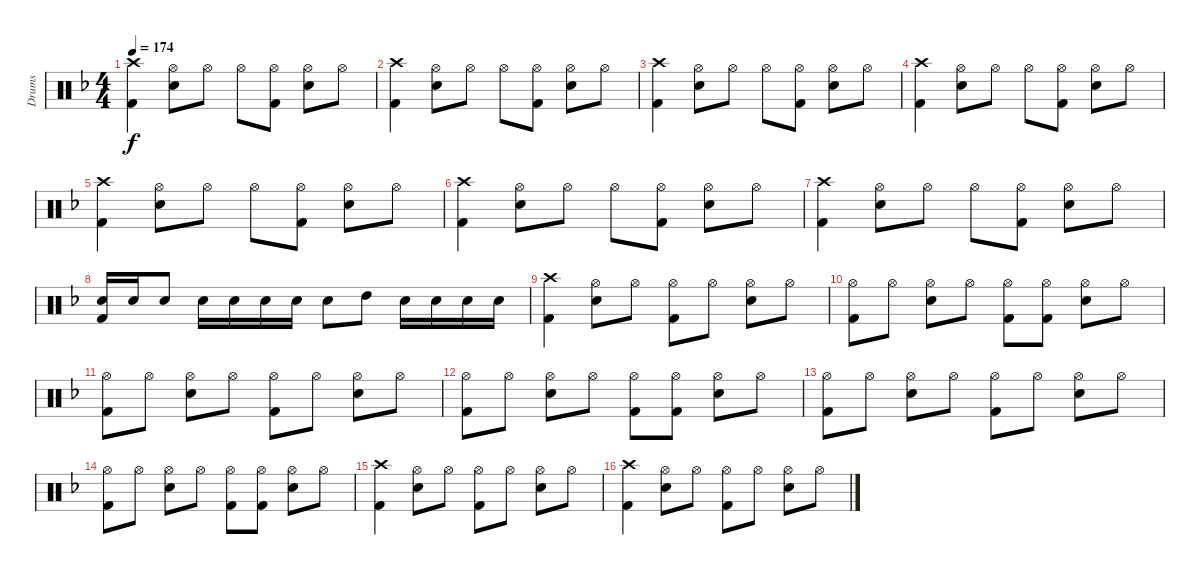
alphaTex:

\track ("Drums" "Drums") {instrument percussion}
\staff {score}
\articulation defaults
\ts (4 4)
\tempo 174
\clef neutral
\ks dminor
("Kick (hit) 2" "Crash high (hit)").4{dy f} ("Snare (hit) 2" "Hi-Hat (open)").8 "Hi-Hat (open)".8 "Hi-Hat (open)".8 ("Kick (hit) 2" "Hi-Hat (open)").8 ("Snare (hit) 2" "Hi-Hat (open)").8 "Hi-Hat (open)".8 |
("Kick (hit) 2" "Crash high (hit)").4 ("Snare (hit) 2" "Hi-Hat (open)").8 "Hi-Hat (open)".8 "Hi-Hat (open)".8 ("Kick (hit) 2" "Hi-Hat (open)").8 ("Snare (hit) 2" "Hi-Hat (open)").8 "Hi-Hat (open)".8 |
("Kick (hit) 2" "Crash high (hit)").4 ("Snare (hit) 2" "Hi-Hat (open)").8 "Hi-Hat (open)".8 "Hi-Hat (open)".8 ("Kick (hit) 2" "Hi-Hat (open)").8 ("Snare (hit) 2" "Hi-Hat (open)").8 "Hi-Hat (open)".8 |
("Kick (hit) 2" "Crash high (hit)").4 ("Snare (hit) 2" "Hi-Hat (open)").8 "Hi-Hat (open)".8 "Hi-Hat (open)".8 ("Kick (hit) 2" "Hi-Hat (open)").8 ("Snare (hit) 2" "Hi-Hat (open)").8 "Hi-Hat (open)".8 |
("Kick (hit) 2" "Crash high (hit)").4 ("Snare (hit) 2" "Hi-Hat (open)").8 "Hi-Hat (open)".8 "Hi-Hat (open)".8 ("Kick (hit) 2" "Hi-Hat (open)").8 ("Snare (hit) 2" "Hi-Hat (open)").8 "Hi-Hat (open)".8 |
("Kick (hit) 2" "Crash high (hit)").4 ("Snare (hit) 2" "Hi-Hat (open)").8 "Hi-Hat (open)".8 "Hi-Hat (open)".8 ("Kick (hit) 2" "Hi-Hat (open)").8 ("Snare (hit) 2" "Hi-Hat (open)").8 "Hi-Hat (open)".8 |
("Kick (hit) 2" "Crash high (hit)").4 ("Snare (hit) 2" "Hi-Hat (open)").8 "Hi-Hat (open)".8 "Hi-Hat (open)".8 ("Kick (hit) 2" "Hi-Hat (open)").8 ("Snare (hit) 2" "Hi-Hat (open)").8 "Hi-Hat (open)".8 |
("Kick (hit) 2" "Snare (hit) 2").16 "Snare (hit) 2".16 "Snare (hit) 2".8 "Snare (hit) 2".16 "Snare (hit) 2".16 "Snare (hit) 2".16 "Snare (hit) 2".16 "Snare (hit) 2".8 "High Tom (hit)".8 "Snare (hit) 2".16 "Snare (hit) 2".16 "Snare (hit) 2".16 "Snare (hit) 2".16 |
("Kick (hit) 2" "Crash high (hit)").4 ("Snare (hit) 2" "Hi-Hat (open)").8 "Hi-Hat (open)".8 ("Kick (hit) 2" "Hi-Hat (open)").8 "Hi-Hat (open)".8 ("Snare (hit) 2" "Hi-Hat (open)").8 "Hi-Hat (open)".8 |
("Kick (hit) 2" "Hi-Hat (open)").8 "Hi-Hat (open)".8 ("Snare (hit) 2" "Hi-Hat (open)").8 "Hi-Hat (open)".8 ("Kick (hit) 2" "Hi-Hat (open)").8 ("Kick (hit) 2" "Hi-Hat (open)").8 ("Snare (hit) 2" "Hi-Hat (open)").8 "Hi-Hat (open)".8 |
("Kick (hit) 2" "Hi-Hat (open)").8 "Hi-Hat (open)".8 ("Snare (hit) 2" "Hi-Hat (open)").8 "Hi-Hat (open)".8 ("Kick (hit) 2" "Hi-Hat (open)").8 "Hi-Hat (open)".8 ("Snare (hit) 2" "Hi-Hat (open)").8 "Hi-Hat (open)".8 |
("Kick (hit) 2" "Hi-Hat (open)").8 "Hi-Hat (open)".8 ("Snare (hit) 2" "Hi-Hat (open)").8 "Hi-Hat (open)".8 ("Kick (hit) 2" "Hi-Hat (open)").8 ("Kick (hit) 2" "Hi-Hat (open)").8 ("Snare (hit) 2" "Hi-Hat (open)").8 "Hi-Hat (open)".8 |
("Kick (hit) 2" "Hi-Hat (open)").8 "Hi-Hat (open)".8 ("Snare (hit) 2" "Hi-Hat (open)").8 "Hi-Hat (open)".8 ("Kick (hit) 2" "Hi-Hat (open)").8 "Hi-Hat (open)".8 ("Snare (hit) 2" "Hi-Hat (open)").8 "Hi-Hat (open)".8 |
("Kick (hit) 2" "Hi-Hat (open)").8 "Hi-Hat (open)".8 ("Snare (hit) 2" "Hi-Hat (open)").8 "Hi-Hat (open)".8 ("Kick (hit) 2" "Hi-Hat (open)").8 ("Kick (hit) 2" "Hi-Hat (open)").8 ("Snare (hit) 2" "Hi-Hat (open)").8 "Hi-Hat (open)".8 |
("Kick (hit) 2" "Crash high (hit)").4 ("Snare (hit) 2" "Hi-Hat (open)").8 "Hi-Hat (open)".8 ("Kick (hit) 2" "Hi-Hat (open)").8 "Hi-Hat (open)".8 ("Snare (hit) 2" "Hi-Hat (open)").8 "Hi-Hat (open)".8 |
("Kick (hit) 2" "Crash high (hit)").4 ("Snare (hit) 2" "Hi-Hat (open)").8 "Hi-Hat (open)".8 ("Kick (hit) 2" "Hi-Hat (open)").8 "Hi-Hat (open)".8 ("Snare (hit) 2" "Hi-Hat (open)").8 "Hi-Hat (open)".8
